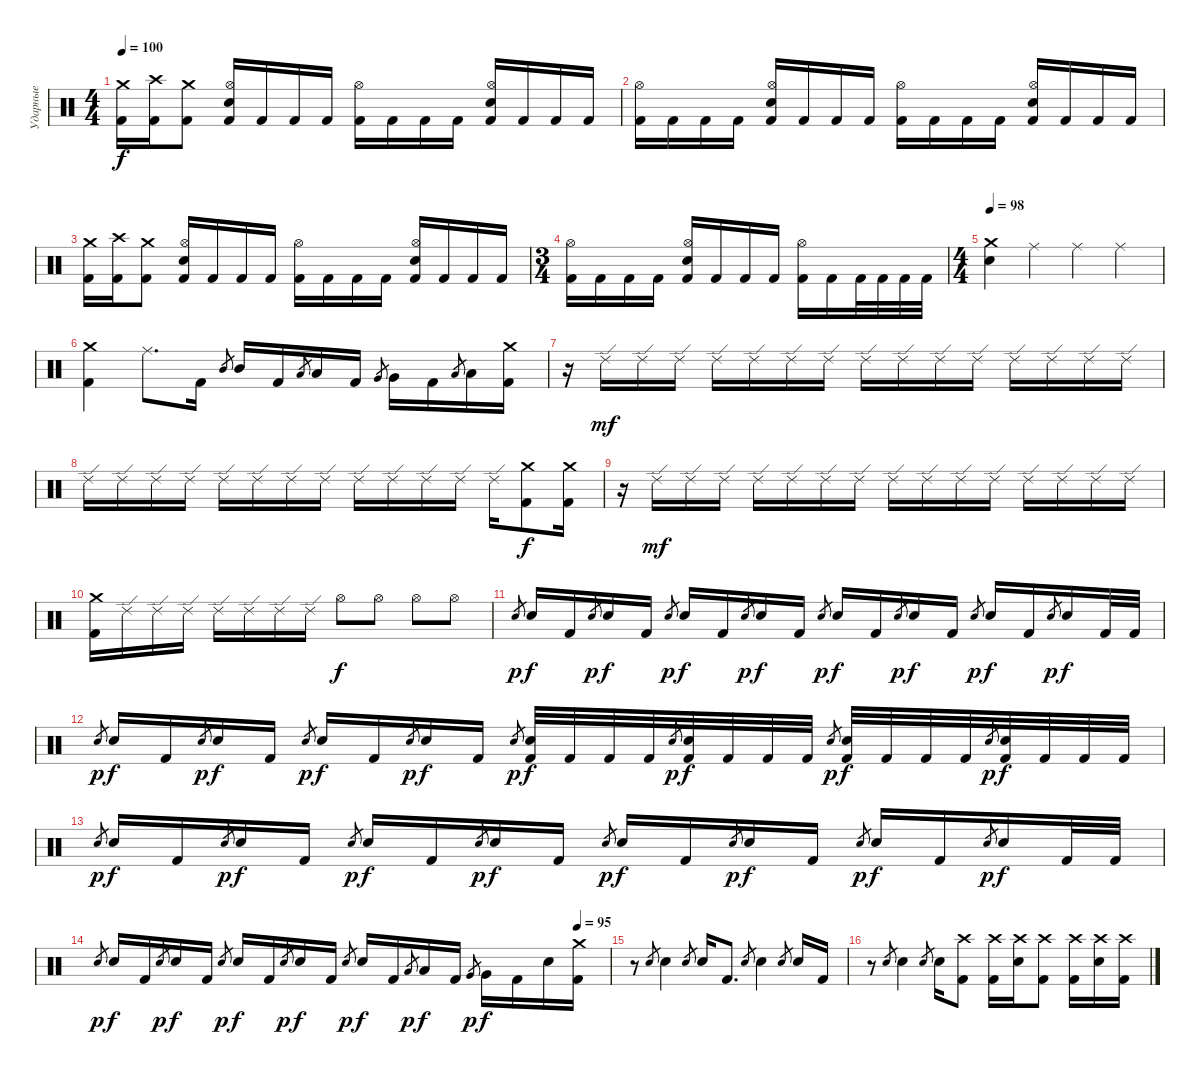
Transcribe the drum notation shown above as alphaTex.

\track ("Ударные" "Ударные") {instrument percussion}
\staff {score}
\articulation defaults
\ts (4 4)
\tempo 100
\clef neutral
\ks c
("Crash medium (hit)" "Kick (hit) 2").16{dy f} ("Crash high (hit)" "Kick (hit) 2").16 ("Crash medium (hit)" "Kick (hit) 2").8 ("Hi-Hat (open)" "Kick (hit) 2" "Snare (hit) 2").16 "Kick (hit) 2".16 "Kick (hit) 2".16 "Kick (hit) 2".16 ("Hi-Hat (open)" "Kick (hit) 2").16 "Kick (hit) 2".16 "Kick (hit) 2".16 "Kick (hit) 2".16 ("Hi-Hat (open)" "Kick (hit) 2" "Snare (hit) 2").16 "Kick (hit) 2".16 "Kick (hit) 2".16 "Kick (hit) 2".16 |
("Hi-Hat (open)" "Kick (hit) 2").16 "Kick (hit) 2".16 "Kick (hit) 2".16 "Kick (hit) 2".16 ("Hi-Hat (open)" "Kick (hit) 2" "Snare (hit) 2").16 "Kick (hit) 2".16 "Kick (hit) 2".16 "Kick (hit) 2".16 ("Hi-Hat (open)" "Kick (hit) 2").16 "Kick (hit) 2".16 "Kick (hit) 2".16 "Kick (hit) 2".16 ("Hi-Hat (open)" "Kick (hit) 2" "Snare (hit) 2").16 "Kick (hit) 2".16 "Kick (hit) 2".16 "Kick (hit) 2".16 |
("Crash medium (hit)" "Kick (hit) 2").16 ("Crash high (hit)" "Kick (hit) 2").16 ("Crash medium (hit)" "Kick (hit) 2").8 ("Hi-Hat (open)" "Kick (hit) 2" "Snare (hit) 2").16 "Kick (hit) 2".16 "Kick (hit) 2".16 "Kick (hit) 2".16 ("Hi-Hat (open)" "Kick (hit) 2").16 "Kick (hit) 2".16 "Kick (hit) 2".16 "Kick (hit) 2".16 ("Hi-Hat (open)" "Kick (hit) 2" "Snare (hit) 2").16 "Kick (hit) 2".16 "Kick (hit) 2".16 "Kick (hit) 2".16 |
\ts (3 4)
("Hi-Hat (open)" "Kick (hit) 2").16 "Kick (hit) 2".16 "Kick (hit) 2".16 "Kick (hit) 2".16 ("Hi-Hat (open)" "Kick (hit) 2" "Snare (hit) 2").16 "Kick (hit) 2".16 "Kick (hit) 2".16 "Kick (hit) 2".16 ("Hi-Hat (open)" "Kick (hit) 2").16 "Kick (hit) 2".16 "Kick (hit) 2".32 "Kick (hit) 2".32 "Kick (hit) 2".32 "Kick (hit) 2".32 |
\ts (4 4)
\tempo 98
("Crash medium (hit)" "Snare (hit) 2").4 "Ride (middle)".4 "Ride (middle)".4 "Ride (middle)".4 |
("Crash medium (hit)" "Kick (hit) 2").4 "Ride (middle)".8{d} "Kick (hit) 2".16 "Mid Tom (hit)".8{gr} "Mid Tom (hit)".16 "Kick (hit) 2".16 "Low Tom (hit)".8{gr} "Low Tom (hit)".16 "Kick (hit) 2".16 "Very Low Tom (hit)".8{gr} "Very Low Tom (hit)".16 "Kick (hit) 2".16 "Low Floor Tom (hit)".8{gr} "Low Floor Tom (hit)".16 ("Crash medium (hit)" "Kick (hit) 2").16 |
r.16 "Ride (edge) 2".16{dy mf} "Ride (edge) 2".16 "Ride (edge) 2".16 "Ride (edge) 2".16 "Ride (edge) 2".16 "Ride (edge) 2".16 "Ride (edge) 2".16 "Ride (edge) 2".16 "Ride (edge) 2".16 "Ride (edge) 2".16 "Ride (edge) 2".16 "Ride (edge) 2".16 "Ride (edge) 2".16 "Ride (edge) 2".16 "Ride (edge) 2".16 |
"Ride (edge) 2".16 "Ride (edge) 2".16 "Ride (edge) 2".16 "Ride (edge) 2".16 "Ride (edge) 2".16 "Ride (edge) 2".16 "Ride (edge) 2".16 "Ride (edge) 2".16 "Ride (edge) 2".16 "Ride (edge) 2".16 "Ride (edge) 2".16 "Ride (edge) 2".16 "Ride (edge) 2".16 ("Crash medium (hit)" "Kick (hit) 2").8{dy f} ("Crash medium (hit)" "Kick (hit) 2").16 |
r.16 "Ride (edge) 2".16{dy mf} "Ride (edge) 2".16 "Ride (edge) 2".16 "Ride (edge) 2".16 "Ride (edge) 2".16 "Ride (edge) 2".16 "Ride (edge) 2".16 "Ride (edge) 2".16 "Ride (edge) 2".16 "Ride (edge) 2".16 "Ride (edge) 2".16 "Ride (edge) 2".16 "Ride (edge) 2".16 "Ride (edge) 2".16 "Ride (edge) 2".16 |
("Crash medium (hit)" "Kick (hit) 2").16 "Ride (edge) 2".16 "Ride (edge) 2".16 "Ride (edge) 2".16 "Ride (edge) 2".16 "Ride (edge) 2".16 "Ride (edge) 2".16 "Ride (edge) 2".16 "Hi-Hat (open)".8{dy f} "Hi-Hat (open)".8 "Hi-Hat (open)".8 "Hi-Hat (open)".8 |
"Snare (hit) 2".8{gr dy p} "Snare (hit) 2".16{dy f} "Kick (hit) 2".16 "Snare (hit) 2".8{gr dy p} "Snare (hit) 2".16{dy f} "Kick (hit) 2".16 "Snare (hit) 2".8{gr dy p} "Snare (hit) 2".16{dy f} "Kick (hit) 2".16 "Snare (hit) 2".8{gr dy p} "Snare (hit) 2".16{dy f} "Kick (hit) 2".16 "Snare (hit) 2".8{gr dy p} "Snare (hit) 2".16{dy f} "Kick (hit) 2".16 "Snare (hit) 2".8{gr dy p} "Snare (hit) 2".16{dy f} "Kick (hit) 2".16 "Snare (hit) 2".8{gr dy p} "Snare (hit) 2".16{dy f} "Kick (hit) 2".16 "Snare (hit) 2".8{gr dy p} "Snare (hit) 2".16{dy f} "Kick (hit) 2".32 "Kick (hit) 2".32 |
"Snare (hit) 2".8{gr dy p} "Snare (hit) 2".16{dy f} "Kick (hit) 2".16 "Snare (hit) 2".8{gr dy p} "Snare (hit) 2".16{dy f} "Kick (hit) 2".16 "Snare (hit) 2".8{gr dy p} "Snare (hit) 2".16{dy f} "Kick (hit) 2".16 "Snare (hit) 2".8{gr dy p} "Snare (hit) 2".16{dy f} "Kick (hit) 2".16 "Snare (hit) 2".8{gr dy p} ("Kick (hit) 2" "Snare (hit) 2").32{dy f} "Kick (hit) 2".32 "Kick (hit) 2".32 "Kick (hit) 2".32 "Snare (hit) 2".8{gr dy p} ("Kick (hit) 2" "Snare (hit) 2").32{dy f} "Kick (hit) 2".32 "Kick (hit) 2".32 "Kick (hit) 2".32 "Snare (hit) 2".8{gr dy p} ("Kick (hit) 2" "Snare (hit) 2").32{dy f} "Kick (hit) 2".32 "Kick (hit) 2".32 "Kick (hit) 2".32 "Snare (hit) 2".8{gr dy p} ("Kick (hit) 2" "Snare (hit) 2").32{dy f} "Kick (hit) 2".32 "Kick (hit) 2".32 "Kick (hit) 2".32 |
"Snare (hit) 2".8{gr dy p} "Snare (hit) 2".16{dy f} "Kick (hit) 2".16 "Snare (hit) 2".8{gr dy p} "Snare (hit) 2".16{dy f} "Kick (hit) 2".16 "Snare (hit) 2".8{gr dy p} "Snare (hit) 2".16{dy f} "Kick (hit) 2".16 "Snare (hit) 2".8{gr dy p} "Snare (hit) 2".16{dy f} "Kick (hit) 2".16 "Snare (hit) 2".8{gr dy p} "Snare (hit) 2".16{dy f} "Kick (hit) 2".16 "Snare (hit) 2".8{gr dy p} "Snare (hit) 2".16{dy f} "Kick (hit) 2".16 "Snare (hit) 2".8{gr dy p} "Snare (hit) 2".16{dy f} "Kick (hit) 2".16 "Snare (hit) 2".8{gr dy p} "Snare (hit) 2".16{dy f} "Kick (hit) 2".32 "Kick (hit) 2".32 |
\tempo (95 0.9375)
"Snare (hit) 2".8{gr dy p} "Snare (hit) 2".16{dy f} "Kick (hit) 2".16 "Snare (hit) 2".8{gr dy p} "Snare (hit) 2".16{dy f} "Kick (hit) 2".16 "Snare (hit) 2".8{gr dy p} "Snare (hit) 2".16{dy f} "Kick (hit) 2".16 "Snare (hit) 2".8{gr dy p} "Snare (hit) 2".16{dy f} "Kick (hit) 2".16 "Snare (hit) 2".8{gr dy p} "Snare (hit) 2".16{dy f} "Kick (hit) 2".16 "Low Tom (hit)".8{gr dy p} "Low Tom (hit)".16{dy f} "Kick (hit) 2".16 "Very Low Tom (hit)".8{gr dy p} "Very Low Tom (hit)".16{dy f} "Kick (hit) 2".16 "Snare (hit) 2".16 ("Crash medium (hit)" "Kick (hit) 2").16 |
r.8 "Snare (hit) 2".8{gr} "Snare (hit) 2".4 "Snare (hit) 2".8{gr} "Snare (hit) 2".16 "Kick (hit) 2".8{d} "Snare (hit) 2".8{gr} "Snare (hit) 2".4 "Snare (hit) 2".8{gr} "Snare (hit) 2".16 "Kick (hit) 2".16 |
r.8 "Snare (hit) 2".8{gr} "Snare (hit) 2".4 "Snare (hit) 2".8{gr} "Snare (hit) 2".16 ("Crash high (hit)" "Kick (hit) 2").8 ("Crash high (hit)" "Kick (hit) 2").16 ("Crash high (hit)" "Snare (hit) 2").16 ("Crash high (hit)" "Kick (hit) 2").8 ("Crash high (hit)" "Kick (hit) 2").16 ("Crash high (hit)" "Snare (hit) 2").16 ("Crash high (hit)" "Kick (hit) 2").16
